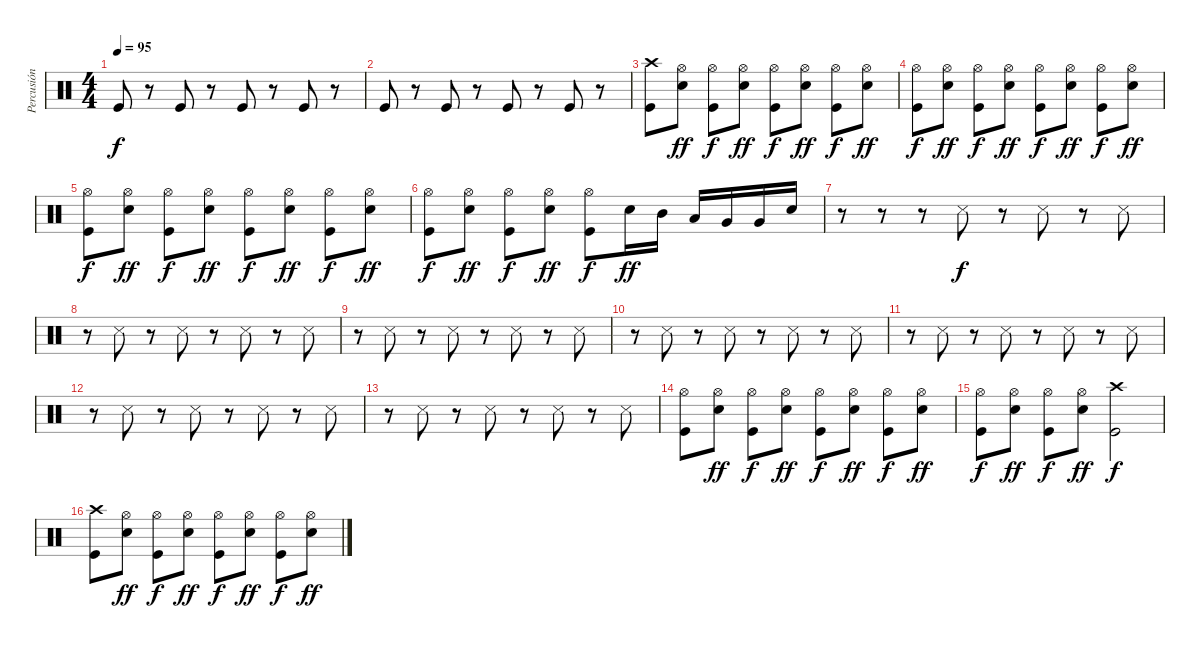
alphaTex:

\track ("Percusión" "Percusión") {instrument percussion}
\staff {score}
\articulation defaults
\ts (4 4)
\tempo 95
\clef neutral
\ks c "Kick (hit)".8{dy f}
r.8 "Kick (hit)".8 r.8 "Kick (hit)".8 r.8 "Kick (hit)".8 r.8 |
"Kick (hit)".8 r.8 "Kick (hit)".8 r.8 "Kick (hit)".8 r.8 "Kick (hit)".8 r.8 |
("Kick (hit)" "Crash high (hit)").8 ("Electric Snare (hit)" "Hi-Hat (open)").8{dy ff} ("Kick (hit)" "Hi-Hat (open)").8{dy f} ("Electric Snare (hit)" "Hi-Hat (open)").8{dy ff} ("Kick (hit)" "Hi-Hat (open)").8{dy f} ("Electric Snare (hit)" "Hi-Hat (open)").8{dy ff} ("Kick (hit)" "Hi-Hat (open)").8{dy f} ("Electric Snare (hit)" "Hi-Hat (open)").8{dy ff} |
("Kick (hit)" "Hi-Hat (open)").8{dy f} ("Electric Snare (hit)" "Hi-Hat (open)").8{dy ff} ("Kick (hit)" "Hi-Hat (open)").8{dy f} ("Electric Snare (hit)" "Hi-Hat (open)").8{dy ff} ("Kick (hit)" "Hi-Hat (open)").8{dy f} ("Electric Snare (hit)" "Hi-Hat (open)").8{dy ff} ("Kick (hit)" "Hi-Hat (open)").8{dy f} ("Electric Snare (hit)" "Hi-Hat (open)").8{dy ff} |
("Kick (hit)" "Hi-Hat (open)").8{dy f} ("Electric Snare (hit)" "Hi-Hat (open)").8{dy ff} ("Kick (hit)" "Hi-Hat (open)").8{dy f} ("Electric Snare (hit)" "Hi-Hat (open)").8{dy ff} ("Kick (hit)" "Hi-Hat (open)").8{dy f} ("Electric Snare (hit)" "Hi-Hat (open)").8{dy ff} ("Kick (hit)" "Hi-Hat (open)").8{dy f} ("Electric Snare (hit)" "Hi-Hat (open)").8{dy ff} |
("Kick (hit)" "Hi-Hat (open)").8{dy f} ("Electric Snare (hit)" "Hi-Hat (open)").8{dy ff} ("Kick (hit)" "Hi-Hat (open)").8{dy f} ("Electric Snare (hit)" "Hi-Hat (open)").8{dy ff} ("Kick (hit)" "Hi-Hat (open)").8{dy f} "Electric Snare (hit)".16{dy ff} "Mid Tom (hit)".16 "Low Tom (hit)".16 "Very Low Tom (hit)".16 "Very Low Tom (hit)".16 "Electric Snare (hit)".16 |
r.8 r.8 r.8 "Snare (side stick) 3".8{dy f} r.8 "Snare (side stick) 3".8 r.8 "Snare (side stick) 3".8 |
r.8 "Snare (side stick) 3".8 r.8 "Snare (side stick) 3".8 r.8 "Snare (side stick) 3".8 r.8 "Snare (side stick) 3".8 |
r.8 "Snare (side stick) 3".8 r.8 "Snare (side stick) 3".8 r.8 "Snare (side stick) 3".8 r.8 "Snare (side stick) 3".8 |
r.8 "Snare (side stick) 3".8 r.8 "Snare (side stick) 3".8 r.8 "Snare (side stick) 3".8 r.8 "Snare (side stick) 3".8 |
r.8 "Snare (side stick) 3".8 r.8 "Snare (side stick) 3".8 r.8 "Snare (side stick) 3".8 r.8 "Snare (side stick) 3".8 |
r.8 "Snare (side stick) 3".8 r.8 "Snare (side stick) 3".8 r.8 "Snare (side stick) 3".8 r.8 "Snare (side stick) 3".8 |
r.8 "Snare (side stick) 3".8 r.8 "Snare (side stick) 3".8 r.8 "Snare (side stick) 3".8 r.8 "Snare (side stick) 3".8 |
("Kick (hit)" "Hi-Hat (open)").8 ("Electric Snare (hit)" "Hi-Hat (open)").8{dy ff} ("Kick (hit)" "Hi-Hat (open)").8{dy f} ("Electric Snare (hit)" "Hi-Hat (open)").8{dy ff} ("Kick (hit)" "Hi-Hat (open)").8{dy f} ("Electric Snare (hit)" "Hi-Hat (open)").8{dy ff} ("Kick (hit)" "Hi-Hat (open)").8{dy f} ("Electric Snare (hit)" "Hi-Hat (open)").8{dy ff} |
("Kick (hit)" "Hi-Hat (open)").8{dy f} ("Electric Snare (hit)" "Hi-Hat (open)").8{dy ff} ("Kick (hit)" "Hi-Hat (open)").8{dy f} ("Electric Snare (hit)" "Hi-Hat (open)").8{dy ff} ("Kick (hit)" "Crash high (hit)").2{dy f} |
("Kick (hit)" "Crash high (hit)").8 ("Electric Snare (hit)" "Hi-Hat (open)").8{dy ff} ("Kick (hit)" "Hi-Hat (open)").8{dy f} ("Electric Snare (hit)" "Hi-Hat (open)").8{dy ff} ("Kick (hit)" "Hi-Hat (open)").8{dy f} ("Electric Snare (hit)" "Hi-Hat (open)").8{dy ff} ("Kick (hit)" "Hi-Hat (open)").8{dy f} ("Electric Snare (hit)" "Hi-Hat (open)").8{dy ff}
